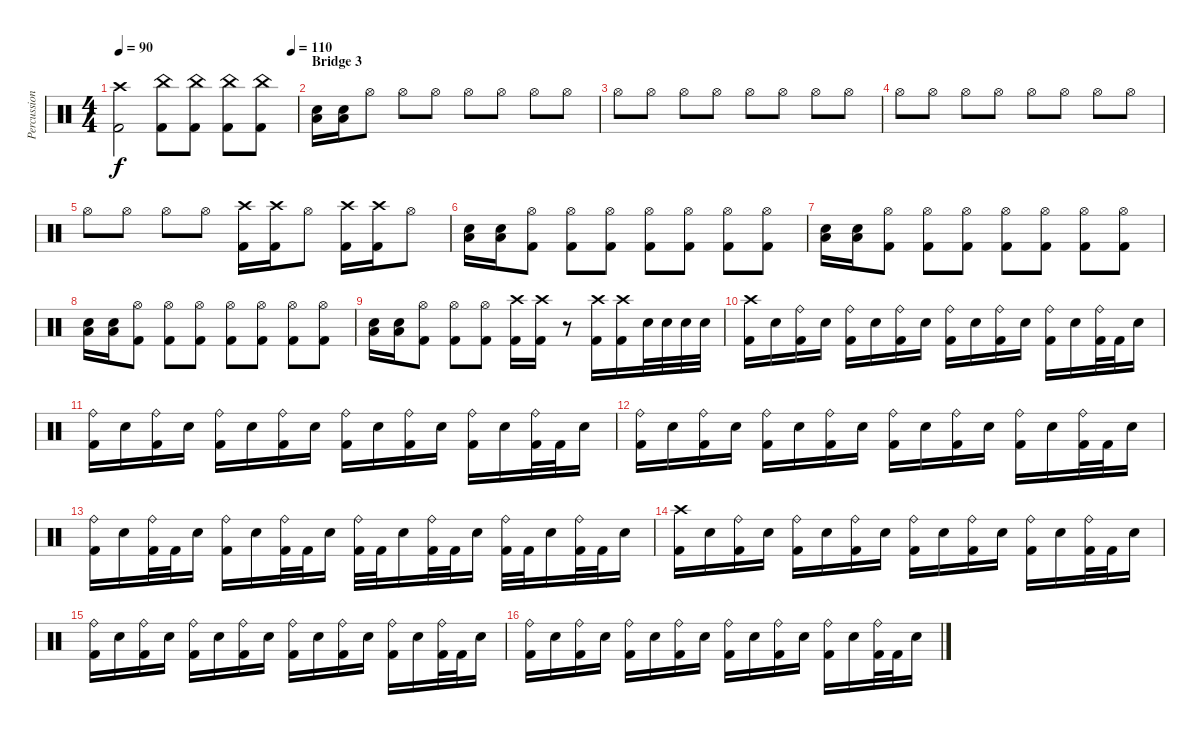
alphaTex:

\track ("Percussion" "Percussion") {instrument percussion}
\staff {score}
\articulation defaults
\ts (4 4)
\tempo 90
\tempo (110 0.96875)
\clef neutral
\ks c
("Kick (hit) 2" "Crash high (hit)").2{dy f} ("Kick (hit) 2" "China (hit)").8 ("Kick (hit) 2" "China (hit)").8 ("Kick (hit) 2" "China (hit)").8 ("Kick (hit) 2" "China (hit)").8 |
\section ("" "Bridge 3")
("Electric Snare (hit)" "Low Tom (hit)").16 ("Electric Snare (hit)" "Low Tom (hit)").16 "Hi-Hat (open)".8 "Hi-Hat (open)".8 "Hi-Hat (open)".8 "Hi-Hat (open)".8 "Hi-Hat (open)".8 "Hi-Hat (open)".8 "Hi-Hat (open)".8 |
"Hi-Hat (open)".8 "Hi-Hat (open)".8 "Hi-Hat (open)".8 "Hi-Hat (open)".8 "Hi-Hat (open)".8 "Hi-Hat (open)".8 "Hi-Hat (open)".8 "Hi-Hat (open)".8 |
"Hi-Hat (open)".8 "Hi-Hat (open)".8 "Hi-Hat (open)".8 "Hi-Hat (open)".8 "Hi-Hat (open)".8 "Hi-Hat (open)".8 "Hi-Hat (open)".8 "Hi-Hat (open)".8 |
"Hi-Hat (open)".8 "Hi-Hat (open)".8 "Hi-Hat (open)".8 "Hi-Hat (open)".8 ("Kick (hit) 2" "Crash high (hit)").16 ("Kick (hit) 2" "Crash high (hit)").16 "Hi-Hat (open)".8 ("Kick (hit) 2" "Crash high (hit)").16 ("Kick (hit) 2" "Crash high (hit)").16 "Hi-Hat (open)".8 |
("Electric Snare (hit)" "Low Tom (hit)").16 ("Electric Snare (hit)" "Low Tom (hit)").16 ("Kick (hit) 2" "Hi-Hat (open)").8 ("Kick (hit) 2" "Hi-Hat (open)").8 ("Kick (hit) 2" "Hi-Hat (open)").8 ("Kick (hit) 2" "Hi-Hat (open)").8 ("Kick (hit) 2" "Hi-Hat (open)").8 ("Kick (hit) 2" "Hi-Hat (open)").8 ("Kick (hit) 2" "Hi-Hat (open)").8 |
("Electric Snare (hit)" "Low Tom (hit)").16 ("Electric Snare (hit)" "Low Tom (hit)").16 ("Kick (hit) 2" "Hi-Hat (open)").8 ("Kick (hit) 2" "Hi-Hat (open)").8 ("Kick (hit) 2" "Hi-Hat (open)").8 ("Kick (hit) 2" "Hi-Hat (open)").8 ("Kick (hit) 2" "Hi-Hat (open)").8 ("Kick (hit) 2" "Hi-Hat (open)").8 ("Kick (hit) 2" "Hi-Hat (open)").8 |
("Electric Snare (hit)" "Low Tom (hit)").16 ("Electric Snare (hit)" "Low Tom (hit)").16 ("Kick (hit) 2" "Hi-Hat (open)").8 ("Kick (hit) 2" "Hi-Hat (open)").8 ("Kick (hit) 2" "Hi-Hat (open)").8 ("Kick (hit) 2" "Hi-Hat (open)").8 ("Kick (hit) 2" "Hi-Hat (open)").8 ("Kick (hit) 2" "Hi-Hat (open)").8 ("Kick (hit) 2" "Hi-Hat (open)").8 |
("Electric Snare (hit)" "Low Tom (hit)").16 ("Electric Snare (hit)" "Low Tom (hit)").16 ("Kick (hit) 2" "Hi-Hat (open)").8 ("Kick (hit) 2" "Hi-Hat (open)").8 ("Kick (hit) 2" "Hi-Hat (open)").8 ("Kick (hit) 2" "Crash high (hit)").16 ("Kick (hit) 2" "Crash high (hit)").16 r.8 ("Kick (hit) 2" "Crash high (hit)").16 ("Kick (hit) 2" "Crash high (hit)").16 "Electric Snare (hit)".32 "Electric Snare (hit)".32 "Electric Snare (hit)".32 "Electric Snare (hit)".32 |
("Kick (hit) 2" "Crash high (hit)").16 "Electric Snare (hit)".16 ("Kick (hit) 2" "Ride (bell)").16 "Electric Snare (hit)".16 ("Kick (hit) 2" "Ride (bell)").16 "Electric Snare (hit)".16 ("Kick (hit) 2" "Ride (bell)").16 "Electric Snare (hit)".16 ("Kick (hit) 2" "Ride (bell)").16 "Electric Snare (hit)".16 ("Kick (hit) 2" "Ride (bell)").16 "Electric Snare (hit)".16 ("Kick (hit) 2" "Ride (bell)").16 "Electric Snare (hit)".16 ("Kick (hit) 2" "Ride (bell)").32 "Kick (hit) 2".32 "Electric Snare (hit)".16 |
("Kick (hit) 2" "Ride (bell)").16 "Electric Snare (hit)".16 ("Kick (hit) 2" "Ride (bell)").16 "Electric Snare (hit)".16 ("Kick (hit) 2" "Ride (bell)").16 "Electric Snare (hit)".16 ("Kick (hit) 2" "Ride (bell)").16 "Electric Snare (hit)".16 ("Kick (hit) 2" "Ride (bell)").16 "Electric Snare (hit)".16 ("Kick (hit) 2" "Ride (bell)").16 "Electric Snare (hit)".16 ("Kick (hit) 2" "Ride (bell)").16 "Electric Snare (hit)".16 ("Kick (hit) 2" "Ride (bell)").32 "Kick (hit) 2".32 "Electric Snare (hit)".16 |
("Kick (hit) 2" "Ride (bell)").16 "Electric Snare (hit)".16 ("Kick (hit) 2" "Ride (bell)").16 "Electric Snare (hit)".16 ("Kick (hit) 2" "Ride (bell)").16 "Electric Snare (hit)".16 ("Kick (hit) 2" "Ride (bell)").16 "Electric Snare (hit)".16 ("Kick (hit) 2" "Ride (bell)").16 "Electric Snare (hit)".16 ("Kick (hit) 2" "Ride (bell)").16 "Electric Snare (hit)".16 ("Kick (hit) 2" "Ride (bell)").16 "Electric Snare (hit)".16 ("Kick (hit) 2" "Ride (bell)").32 "Kick (hit) 2".32 "Electric Snare (hit)".16 |
("Kick (hit) 2" "Ride (bell)").16 "Electric Snare (hit)".16 ("Kick (hit) 2" "Ride (bell)").32 "Kick (hit) 2".32 "Electric Snare (hit)".16 ("Kick (hit) 2" "Ride (bell)").16 "Electric Snare (hit)".16 ("Kick (hit) 2" "Ride (bell)").32 "Kick (hit) 2".32 "Electric Snare (hit)".16 ("Kick (hit) 2" "Ride (bell)").32 "Kick (hit) 2".32 "Electric Snare (hit)".16 ("Kick (hit) 2" "Ride (bell)").32 "Kick (hit) 2".32 "Electric Snare (hit)".16 ("Kick (hit) 2" "Ride (bell)").32 "Kick (hit) 2".32 "Electric Snare (hit)".16 ("Kick (hit) 2" "Ride (bell)").32 "Kick (hit) 2".32 "Electric Snare (hit)".16 |
("Kick (hit) 2" "Crash high (hit)").16 "Electric Snare (hit)".16 ("Kick (hit) 2" "Ride (bell)").16 "Electric Snare (hit)".16 ("Kick (hit) 2" "Ride (bell)").16 "Electric Snare (hit)".16 ("Kick (hit) 2" "Ride (bell)").16 "Electric Snare (hit)".16 ("Kick (hit) 2" "Ride (bell)").16 "Electric Snare (hit)".16 ("Kick (hit) 2" "Ride (bell)").16 "Electric Snare (hit)".16 ("Kick (hit) 2" "Ride (bell)").16 "Electric Snare (hit)".16 ("Kick (hit) 2" "Ride (bell)").32 "Kick (hit) 2".32 "Electric Snare (hit)".16 |
("Kick (hit) 2" "Ride (bell)").16 "Electric Snare (hit)".16 ("Kick (hit) 2" "Ride (bell)").16 "Electric Snare (hit)".16 ("Kick (hit) 2" "Ride (bell)").16 "Electric Snare (hit)".16 ("Kick (hit) 2" "Ride (bell)").16 "Electric Snare (hit)".16 ("Kick (hit) 2" "Ride (bell)").16 "Electric Snare (hit)".16 ("Kick (hit) 2" "Ride (bell)").16 "Electric Snare (hit)".16 ("Kick (hit) 2" "Ride (bell)").16 "Electric Snare (hit)".16 ("Kick (hit) 2" "Ride (bell)").32 "Kick (hit) 2".32 "Electric Snare (hit)".16 |
("Kick (hit) 2" "Ride (bell)").16 "Electric Snare (hit)".16 ("Kick (hit) 2" "Ride (bell)").16 "Electric Snare (hit)".16 ("Kick (hit) 2" "Ride (bell)").16 "Electric Snare (hit)".16 ("Kick (hit) 2" "Ride (bell)").16 "Electric Snare (hit)".16 ("Kick (hit) 2" "Ride (bell)").16 "Electric Snare (hit)".16 ("Kick (hit) 2" "Ride (bell)").16 "Electric Snare (hit)".16 ("Kick (hit) 2" "Ride (bell)").16 "Electric Snare (hit)".16 ("Kick (hit) 2" "Ride (bell)").32 "Kick (hit) 2".32 "Electric Snare (hit)".16
